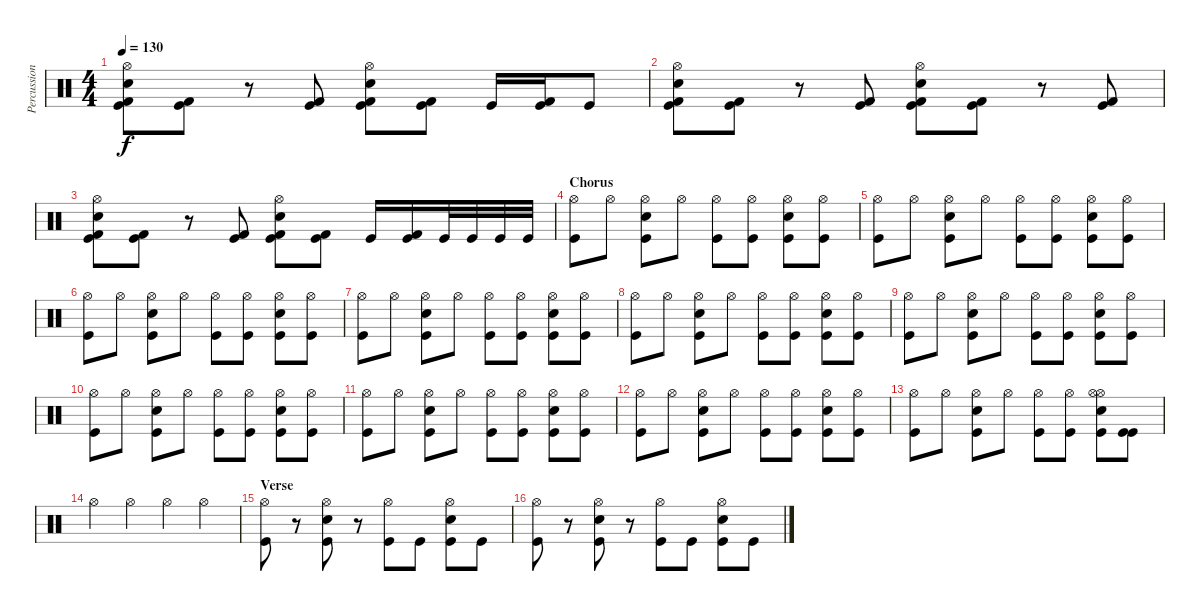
\track ("Percussion" "Percussion") {instrument percussion}
\staff {score}
\articulation defaults
\ts (4 4)
\tempo 130
\clef neutral
\ks c
("Kick (hit) 2" "Kick (hit)" "Snare (hit) 2" "Hi-Hat (open)").8{dy f} ("Kick (hit) 2" "Kick (hit)").8 r.8 ("Kick (hit) 2" "Kick (hit)").8 ("Kick (hit) 2" "Kick (hit)" "Snare (hit) 2" "Hi-Hat (open)").8 ("Kick (hit) 2" "Kick (hit)").8 "Kick (hit)".16 ("Kick (hit) 2" "Kick (hit)").16 "Kick (hit)".8 |
("Kick (hit) 2" "Kick (hit)" "Snare (hit) 2" "Hi-Hat (open)").8 ("Kick (hit) 2" "Kick (hit)").8 r.8 ("Kick (hit) 2" "Kick (hit)").8 ("Kick (hit) 2" "Kick (hit)" "Snare (hit) 2" "Hi-Hat (open)").8 ("Kick (hit) 2" "Kick (hit)").8 r.8 ("Kick (hit) 2" "Kick (hit)").8 |
("Kick (hit) 2" "Kick (hit)" "Snare (hit) 2" "Hi-Hat (open)").8 ("Kick (hit) 2" "Kick (hit)").8 r.8 ("Kick (hit) 2" "Kick (hit)").8 ("Kick (hit) 2" "Kick (hit)" "Snare (hit) 2" "Hi-Hat (open)").8 ("Kick (hit) 2" "Kick (hit)").8 "Kick (hit)".16 ("Kick (hit) 2" "Kick (hit)").16 "Kick (hit)".32 "Kick (hit)".32 "Kick (hit)".32 "Kick (hit)".32 |
\section ("" "Chorus")
("Hi-Hat (open)" "Kick (hit)").8{volume 16} "Hi-Hat (open)".8{volume 14} ("Hi-Hat (open)" "Kick (hit)" "Snare (hit) 2").8 "Hi-Hat (open)".8 ("Hi-Hat (open)" "Kick (hit)").8{volume 16} ("Hi-Hat (open)" "Kick (hit)").8{volume 14} ("Hi-Hat (open)" "Kick (hit)" "Snare (hit) 2").8 ("Hi-Hat (open)" "Kick (hit)").8 |
("Hi-Hat (open)" "Kick (hit)").8{volume 16} "Hi-Hat (open)".8{volume 14} ("Hi-Hat (open)" "Kick (hit)" "Snare (hit) 2").8 "Hi-Hat (open)".8 ("Hi-Hat (open)" "Kick (hit)").8{volume 16} ("Hi-Hat (open)" "Kick (hit)").8{volume 14} ("Hi-Hat (open)" "Kick (hit)" "Snare (hit) 2").8 ("Hi-Hat (open)" "Kick (hit)").8 |
("Hi-Hat (open)" "Kick (hit)").8{volume 16} "Hi-Hat (open)".8{volume 14} ("Hi-Hat (open)" "Kick (hit)" "Snare (hit) 2").8 "Hi-Hat (open)".8 ("Hi-Hat (open)" "Kick (hit)").8{volume 16} ("Hi-Hat (open)" "Kick (hit)").8{volume 14} ("Hi-Hat (open)" "Kick (hit)" "Snare (hit) 2").8 ("Hi-Hat (open)" "Kick (hit)").8 |
("Hi-Hat (open)" "Kick (hit)").8{volume 16} "Hi-Hat (open)".8{volume 14} ("Hi-Hat (open)" "Kick (hit)" "Snare (hit) 2").8 "Hi-Hat (open)".8 ("Hi-Hat (open)" "Kick (hit)").8{volume 16} ("Hi-Hat (open)" "Kick (hit)").8{volume 14} ("Hi-Hat (open)" "Kick (hit)" "Snare (hit) 2").8 ("Hi-Hat (open)" "Kick (hit)").8 |
("Hi-Hat (open)" "Kick (hit)").8{volume 16} "Hi-Hat (open)".8{volume 14} ("Hi-Hat (open)" "Kick (hit)" "Snare (hit) 2").8 "Hi-Hat (open)".8 ("Hi-Hat (open)" "Kick (hit)").8{volume 16} ("Hi-Hat (open)" "Kick (hit)").8{volume 14} ("Hi-Hat (open)" "Kick (hit)" "Snare (hit) 2").8 ("Hi-Hat (open)" "Kick (hit)").8 |
("Hi-Hat (open)" "Kick (hit)").8{volume 16} "Hi-Hat (open)".8{volume 14} ("Hi-Hat (open)" "Kick (hit)" "Snare (hit) 2").8 "Hi-Hat (open)".8 ("Hi-Hat (open)" "Kick (hit)").8{volume 16} ("Hi-Hat (open)" "Kick (hit)").8{volume 14} ("Hi-Hat (open)" "Kick (hit)" "Snare (hit) 2").8 ("Hi-Hat (open)" "Kick (hit)").8 |
("Hi-Hat (open)" "Kick (hit)").8{volume 16} "Hi-Hat (open)".8{volume 14} ("Hi-Hat (open)" "Kick (hit)" "Snare (hit) 2").8 "Hi-Hat (open)".8 ("Hi-Hat (open)" "Kick (hit)").8{volume 16} ("Hi-Hat (open)" "Kick (hit)").8{volume 14} ("Hi-Hat (open)" "Kick (hit)" "Snare (hit) 2").8 ("Hi-Hat (open)" "Kick (hit)").8 |
("Hi-Hat (open)" "Kick (hit)").8{volume 16} "Hi-Hat (open)".8{volume 14} ("Hi-Hat (open)" "Kick (hit)" "Snare (hit) 2").8 "Hi-Hat (open)".8 ("Hi-Hat (open)" "Kick (hit)").8{volume 16} ("Hi-Hat (open)" "Kick (hit)").8{volume 14} ("Hi-Hat (open)" "Kick (hit)" "Snare (hit) 2").8 ("Hi-Hat (open)" "Kick (hit)").8 |
("Hi-Hat (open)" "Kick (hit)").8{volume 16} "Hi-Hat (open)".8{volume 14} ("Hi-Hat (open)" "Kick (hit)" "Snare (hit) 2").8 "Hi-Hat (open)".8 ("Hi-Hat (open)" "Kick (hit)").8{volume 16} ("Hi-Hat (open)" "Kick (hit)").8{volume 14} ("Hi-Hat (open)" "Kick (hit)" "Snare (hit) 2").8 ("Hi-Hat (open)" "Kick (hit)").8 |
("Hi-Hat (open)" "Kick (hit)").8{volume 16} "Hi-Hat (open)".8{volume 14} ("Hi-Hat (open)" "Kick (hit)" "Snare (hit) 2").8 "Hi-Hat (open)".8 ("Hi-Hat (open)" "Kick (hit)").8{volume 16} ("Hi-Hat (open)" "Kick (hit)").8{volume 14} ("Hi-Hat (open)" "Kick (hit)" "Hi-Hat (open)" "Snare (hit) 2").8 ("Kick (hit)" "Kick (hit)").8 |
"Hi-Hat (open)".4{volume 16} "Hi-Hat (open)".4{volume 16} "Hi-Hat (open)".4{volume 16} "Hi-Hat (open)".4{volume 16} |
\section ("" "Verse")
("Hi-Hat (open)" "Kick (hit)").8{volume 16} r.8{volume 14} ("Hi-Hat (open)" "Kick (hit)" "Snare (hit) 2").8 r.8 ("Hi-Hat (open)" "Kick (hit)").8{volume 16} "Kick (hit)".8{volume 14} ("Hi-Hat (open)" "Kick (hit)" "Snare (hit) 2").8 "Kick (hit)".8 |
("Hi-Hat (open)" "Kick (hit)").8{volume 16} r.8{volume 14} ("Hi-Hat (open)" "Kick (hit)" "Snare (hit) 2").8 r.8 ("Hi-Hat (open)" "Kick (hit)").8{volume 16} "Kick (hit)".8{volume 14} ("Hi-Hat (open)" "Kick (hit)" "Snare (hit) 2").8 "Kick (hit)".8
